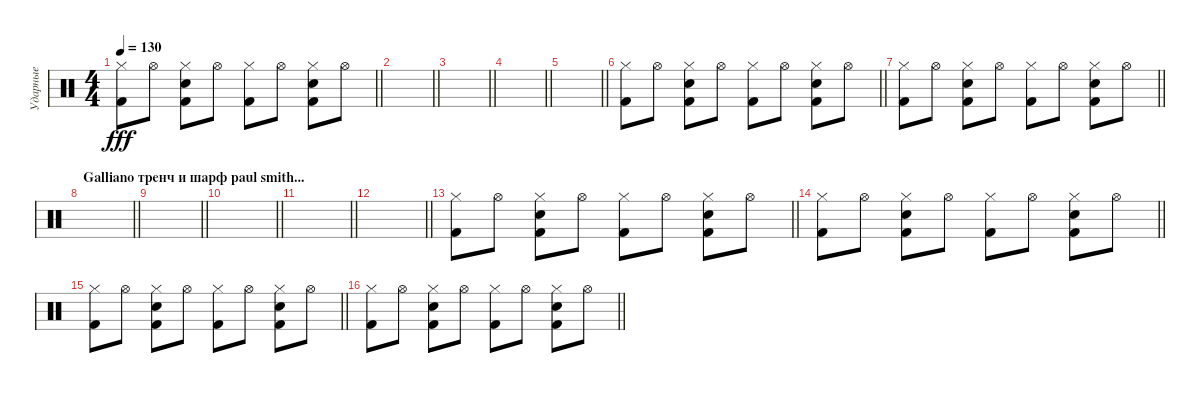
\track ("Ударные" "Ударные") {instrument percussion}
\staff {score}
\articulation defaults
\ts (4 4)
\tempo 130
\clef neutral
\barLineRight lightlight
\ks c
("Kick (hit) 2" "Hi-Hat (closed)").8{dy fff} "Hi-Hat (open)".8 ("Kick (hit) 2" "Hi-Hat (closed)" "Electric Snare (hit)").8 "Hi-Hat (open)".8 ("Kick (hit) 2" "Hi-Hat (closed)").8 "Hi-Hat (open)".8 ("Kick (hit) 2" "Hi-Hat (closed)" "Electric Snare (hit)").8 "Hi-Hat (open)".8 |
\barLineRight lightlight
|
\barLineRight lightlight
|
\barLineRight lightlight
|
\barLineRight lightlight
|
\barLineRight lightlight
("Kick (hit) 2" "Hi-Hat (closed)").8 "Hi-Hat (open)".8 ("Kick (hit) 2" "Hi-Hat (closed)" "Electric Snare (hit)").8 "Hi-Hat (open)".8 ("Kick (hit) 2" "Hi-Hat (closed)").8 "Hi-Hat (open)".8 ("Kick (hit) 2" "Hi-Hat (closed)" "Electric Snare (hit)").8 "Hi-Hat (open)".8 |
\barLineRight lightlight
("Kick (hit) 2" "Hi-Hat (closed)").8 "Hi-Hat (open)".8 ("Kick (hit) 2" "Hi-Hat (closed)" "Electric Snare (hit)").8 "Hi-Hat (open)".8 ("Kick (hit) 2" "Hi-Hat (closed)").8 "Hi-Hat (open)".8 ("Kick (hit) 2" "Hi-Hat (closed)" "Electric Snare (hit)").8 "Hi-Hat (open)".8 |
\section ("" "Galliano тренч и шарф paul smith...")
\barLineRight lightlight
|
\barLineRight lightlight
|
\barLineRight lightlight
|
\barLineRight lightlight
|
\barLineRight lightlight
|
\barLineRight lightlight
("Kick (hit) 2" "Hi-Hat (closed)").8 "Hi-Hat (open)".8 ("Kick (hit) 2" "Hi-Hat (closed)" "Electric Snare (hit)").8 "Hi-Hat (open)".8 ("Kick (hit) 2" "Hi-Hat (closed)").8 "Hi-Hat (open)".8 ("Kick (hit) 2" "Hi-Hat (closed)" "Electric Snare (hit)").8 "Hi-Hat (open)".8 |
\barLineRight lightlight
("Kick (hit) 2" "Hi-Hat (closed)").8 "Hi-Hat (open)".8 ("Kick (hit) 2" "Hi-Hat (closed)" "Electric Snare (hit)").8 "Hi-Hat (open)".8 ("Kick (hit) 2" "Hi-Hat (closed)").8 "Hi-Hat (open)".8 ("Kick (hit) 2" "Hi-Hat (closed)" "Electric Snare (hit)").8 "Hi-Hat (open)".8 |
\barLineRight lightlight
("Kick (hit) 2" "Hi-Hat (closed)").8 "Hi-Hat (open)".8 ("Kick (hit) 2" "Hi-Hat (closed)" "Electric Snare (hit)").8 "Hi-Hat (open)".8 ("Kick (hit) 2" "Hi-Hat (closed)").8 "Hi-Hat (open)".8 ("Kick (hit) 2" "Hi-Hat (closed)" "Electric Snare (hit)").8 "Hi-Hat (open)".8 |
\barLineRight lightlight
("Kick (hit) 2" "Hi-Hat (closed)").8 "Hi-Hat (open)".8 ("Kick (hit) 2" "Hi-Hat (closed)" "Electric Snare (hit)").8 "Hi-Hat (open)".8 ("Kick (hit) 2" "Hi-Hat (closed)").8 "Hi-Hat (open)".8 ("Kick (hit) 2" "Hi-Hat (closed)" "Electric Snare (hit)").8 "Hi-Hat (open)".8
